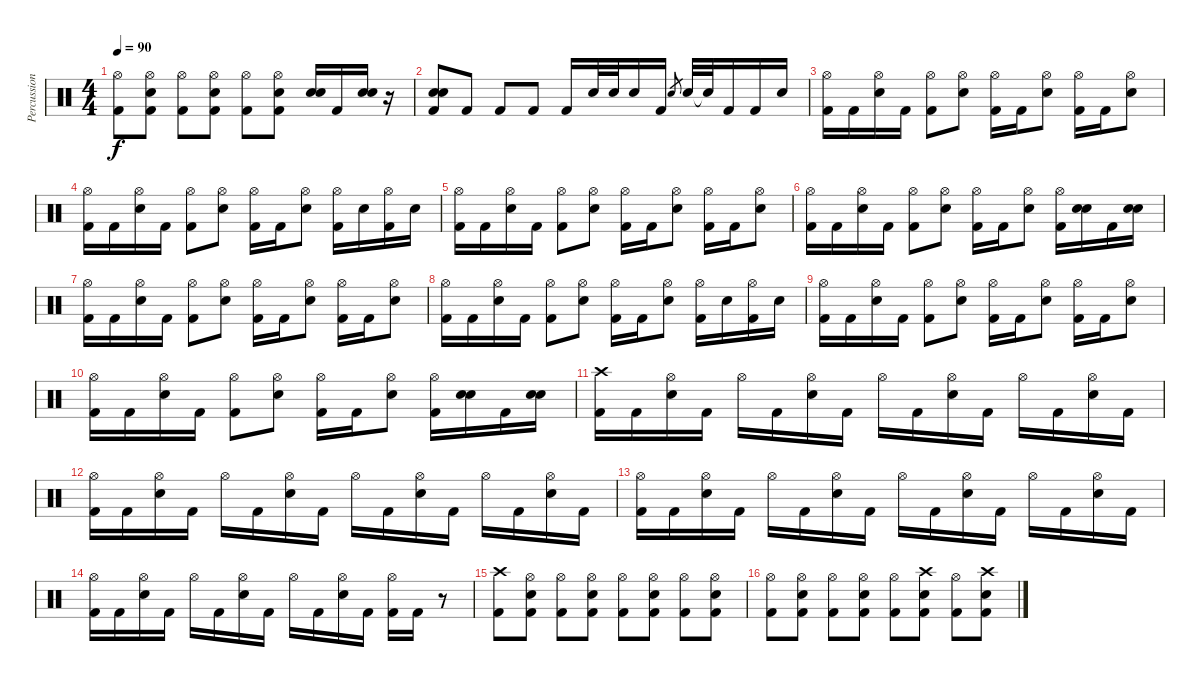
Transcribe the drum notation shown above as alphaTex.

\track ("Percussion" "Percussion") {instrument percussion}
\staff {score}
\articulation defaults
\ts (4 4)
\tempo 90
\clef neutral
\ks c
("Hi-Hat (open)" "Kick (hit) 2").8{dy f} ("Hi-Hat (open)" "Electric Snare (hit)" "Kick (hit) 2").8 ("Hi-Hat (open)" "Kick (hit) 2").8 ("Hi-Hat (open)" "Electric Snare (hit)" "Kick (hit) 2").8 ("Hi-Hat (open)" "Kick (hit) 2").8 ("Hi-Hat (open)" "Electric Snare (hit)" "Kick (hit) 2").8 ("Electric Snare (hit)" "Electric Snare (hit)").16 "Kick (hit) 2".16 ("Electric Snare (hit)" "Electric Snare (hit)").16 r.16 |
("Electric Snare (hit)" "Electric Snare (hit)" "Kick (hit) 2").8 "Kick (hit) 2".8 "Kick (hit) 2".8 "Kick (hit) 2".8 "Kick (hit) 2".16 "Electric Snare (hit)".32 "Electric Snare (hit)".32 "Electric Snare (hit)".16 "Kick (hit) 2".16 "Electric Snare (hit)".8{gr} "Electric Snare (hit)".32 "Snare (hit)"{t}.32 "Kick (hit) 2".16 "Kick (hit) 2".16 "Electric Snare (hit)".16 |
("Hi-Hat (open)" "Kick (hit) 2").16 "Kick (hit) 2".16 ("Hi-Hat (open)" "Electric Snare (hit)").16 "Kick (hit) 2".16 ("Hi-Hat (open)" "Kick (hit) 2").8 ("Hi-Hat (open)" "Electric Snare (hit)").8 ("Hi-Hat (open)" "Kick (hit) 2").16 "Kick (hit) 2".16 ("Hi-Hat (open)" "Electric Snare (hit)").8 ("Hi-Hat (open)" "Kick (hit) 2").16 "Kick (hit) 2".16 ("Hi-Hat (open)" "Electric Snare (hit)").8 |
("Hi-Hat (open)" "Kick (hit) 2").16 "Kick (hit) 2".16 ("Hi-Hat (open)" "Electric Snare (hit)").16 "Kick (hit) 2".16 ("Hi-Hat (open)" "Kick (hit) 2").8 ("Hi-Hat (open)" "Electric Snare (hit)").8 ("Hi-Hat (open)" "Kick (hit) 2").16 "Kick (hit) 2".16 ("Hi-Hat (open)" "Electric Snare (hit)").8 ("Hi-Hat (open)" "Kick (hit) 2").16 "Electric Snare (hit)".16 ("Hi-Hat (open)" "Kick (hit) 2").16 "Electric Snare (hit)".16 |
("Hi-Hat (open)" "Kick (hit) 2").16 "Kick (hit) 2".16 ("Hi-Hat (open)" "Electric Snare (hit)").16 "Kick (hit) 2".16 ("Hi-Hat (open)" "Kick (hit) 2").8 ("Hi-Hat (open)" "Electric Snare (hit)").8 ("Hi-Hat (open)" "Kick (hit) 2").16 "Kick (hit) 2".16 ("Hi-Hat (open)" "Electric Snare (hit)").8 ("Hi-Hat (open)" "Kick (hit) 2").16 "Kick (hit) 2".16 ("Hi-Hat (open)" "Electric Snare (hit)").8 |
("Hi-Hat (open)" "Kick (hit) 2").16 "Kick (hit) 2".16 ("Hi-Hat (open)" "Electric Snare (hit)").16 "Kick (hit) 2".16 ("Hi-Hat (open)" "Kick (hit) 2").8 ("Hi-Hat (open)" "Electric Snare (hit)").8 ("Hi-Hat (open)" "Kick (hit) 2").16 "Kick (hit) 2".16 ("Hi-Hat (open)" "Electric Snare (hit)").8 ("Hi-Hat (open)" "Kick (hit) 2").16 ("Electric Snare (hit)" "Electric Snare (hit)").16 "Kick (hit) 2".16 ("Electric Snare (hit)" "Electric Snare (hit)").16 |
("Hi-Hat (open)" "Kick (hit) 2").16 "Kick (hit) 2".16 ("Hi-Hat (open)" "Electric Snare (hit)").16 "Kick (hit) 2".16 ("Hi-Hat (open)" "Kick (hit) 2").8 ("Hi-Hat (open)" "Electric Snare (hit)").8 ("Hi-Hat (open)" "Kick (hit) 2").16 "Kick (hit) 2".16 ("Hi-Hat (open)" "Electric Snare (hit)").8 ("Hi-Hat (open)" "Kick (hit) 2").16 "Kick (hit) 2".16 ("Hi-Hat (open)" "Electric Snare (hit)").8 |
("Hi-Hat (open)" "Kick (hit) 2").16 "Kick (hit) 2".16 ("Hi-Hat (open)" "Electric Snare (hit)").16 "Kick (hit) 2".16 ("Hi-Hat (open)" "Kick (hit) 2").8 ("Hi-Hat (open)" "Electric Snare (hit)").8 ("Hi-Hat (open)" "Kick (hit) 2").16 "Kick (hit) 2".16 ("Hi-Hat (open)" "Electric Snare (hit)").8 ("Hi-Hat (open)" "Kick (hit) 2").16 "Electric Snare (hit)".16 ("Hi-Hat (open)" "Kick (hit) 2").16 "Electric Snare (hit)".16 |
("Hi-Hat (open)" "Kick (hit) 2").16 "Kick (hit) 2".16 ("Hi-Hat (open)" "Electric Snare (hit)").16 "Kick (hit) 2".16 ("Hi-Hat (open)" "Kick (hit) 2").8 ("Hi-Hat (open)" "Electric Snare (hit)").8 ("Hi-Hat (open)" "Kick (hit) 2").16 "Kick (hit) 2".16 ("Hi-Hat (open)" "Electric Snare (hit)").8 ("Hi-Hat (open)" "Kick (hit) 2").16 "Kick (hit) 2".16 ("Hi-Hat (open)" "Electric Snare (hit)").8 |
("Hi-Hat (open)" "Kick (hit) 2").16 "Kick (hit) 2".16 ("Hi-Hat (open)" "Electric Snare (hit)").16 "Kick (hit) 2".16 ("Hi-Hat (open)" "Kick (hit) 2").8 ("Hi-Hat (open)" "Electric Snare (hit)").8 ("Hi-Hat (open)" "Kick (hit) 2").16 "Kick (hit) 2".16 ("Hi-Hat (open)" "Electric Snare (hit)").8 ("Hi-Hat (open)" "Kick (hit) 2").16 ("Electric Snare (hit)" "Electric Snare (hit)").16 "Kick (hit) 2".16 ("Electric Snare (hit)" "Electric Snare (hit)").16 |
("Crash high (hit)" "Kick (hit) 2").16 "Kick (hit) 2".16 ("Hi-Hat (open)" "Electric Snare (hit)").16 "Kick (hit) 2".16 "Hi-Hat (open)".16 "Kick (hit) 2".16 ("Hi-Hat (open)" "Electric Snare (hit)").16 "Kick (hit) 2".16 "Hi-Hat (open)".16 "Kick (hit) 2".16 ("Hi-Hat (open)" "Electric Snare (hit)").16 "Kick (hit) 2".16 "Hi-Hat (open)".16 "Kick (hit) 2".16 ("Hi-Hat (open)" "Electric Snare (hit)").16 "Kick (hit) 2".16 |
("Hi-Hat (open)" "Kick (hit) 2").16 "Kick (hit) 2".16 ("Hi-Hat (open)" "Electric Snare (hit)").16 "Kick (hit) 2".16 "Hi-Hat (open)".16 "Kick (hit) 2".16 ("Hi-Hat (open)" "Electric Snare (hit)").16 "Kick (hit) 2".16 "Hi-Hat (open)".16 "Kick (hit) 2".16 ("Hi-Hat (open)" "Electric Snare (hit)").16 "Kick (hit) 2".16 "Hi-Hat (open)".16 "Kick (hit) 2".16 ("Hi-Hat (open)" "Electric Snare (hit)").16 "Kick (hit) 2".16 |
("Hi-Hat (open)" "Kick (hit) 2").16 "Kick (hit) 2".16 ("Hi-Hat (open)" "Electric Snare (hit)").16 "Kick (hit) 2".16 "Hi-Hat (open)".16 "Kick (hit) 2".16 ("Hi-Hat (open)" "Electric Snare (hit)").16 "Kick (hit) 2".16 "Hi-Hat (open)".16 "Kick (hit) 2".16 ("Hi-Hat (open)" "Electric Snare (hit)").16 "Kick (hit) 2".16 "Hi-Hat (open)".16 "Kick (hit) 2".16 ("Hi-Hat (open)" "Electric Snare (hit)").16 "Kick (hit) 2".16 |
("Hi-Hat (open)" "Kick (hit) 2").16 "Kick (hit) 2".16 ("Hi-Hat (open)" "Electric Snare (hit)").16 "Kick (hit) 2".16 "Hi-Hat (open)".16 "Kick (hit) 2".16 ("Hi-Hat (open)" "Electric Snare (hit)").16 "Kick (hit) 2".16 "Hi-Hat (open)".16 "Kick (hit) 2".16 ("Hi-Hat (open)" "Electric Snare (hit)").16 "Kick (hit) 2".16 ("Hi-Hat (open)" "Kick (hit) 2").16 "Kick (hit) 2".16 r.8 |
("Crash high (hit)" "Kick (hit) 2").8 ("Hi-Hat (open)" "Electric Snare (hit)" "Kick (hit) 2").8 ("Hi-Hat (open)" "Kick (hit) 2").8 ("Hi-Hat (open)" "Electric Snare (hit)" "Kick (hit) 2").8 ("Hi-Hat (open)" "Kick (hit) 2").8 ("Hi-Hat (open)" "Electric Snare (hit)" "Kick (hit) 2").8 ("Hi-Hat (open)" "Kick (hit) 2").8 ("Hi-Hat (open)" "Electric Snare (hit)" "Kick (hit) 2").8 |
("Hi-Hat (open)" "Kick (hit) 2").8 ("Hi-Hat (open)" "Electric Snare (hit)" "Kick (hit) 2").8 ("Hi-Hat (open)" "Kick (hit) 2").8 ("Hi-Hat (open)" "Electric Snare (hit)" "Kick (hit) 2").8 ("Hi-Hat (open)" "Kick (hit) 2").8 ("Crash high (hit)" "Electric Snare (hit)" "Kick (hit) 2").8 ("Hi-Hat (open)" "Kick (hit) 2").8 ("Crash high (hit)" "Electric Snare (hit)" "Kick (hit) 2").8
